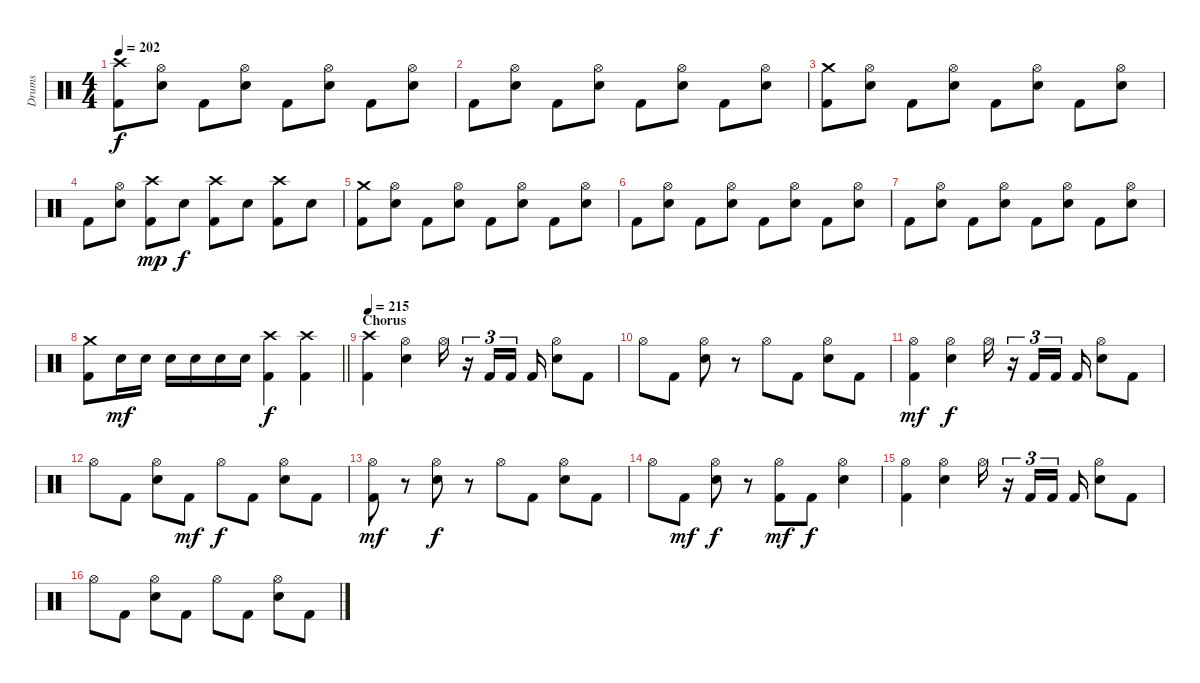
\track ("Drums" "Drums") {instrument percussion}
\staff {score}
\articulation defaults
\ts (4 4)
\tempo 202
\clef neutral
\ks c
("Crash high (hit)" "Kick (hit) 2").8{dy f} ("Hi-Hat (open)" "Snare (hit) 2").8 "Kick (hit) 2".8 ("Hi-Hat (open)" "Snare (hit) 2").8 "Kick (hit) 2".8 ("Hi-Hat (open)" "Snare (hit) 2").8 "Kick (hit) 2".8 ("Hi-Hat (open)" "Snare (hit) 2").8 |
"Kick (hit) 2".8 ("Hi-Hat (open)" "Snare (hit) 2").8 "Kick (hit) 2".8 ("Hi-Hat (open)" "Snare (hit) 2").8 "Kick (hit) 2".8 ("Hi-Hat (open)" "Snare (hit) 2").8 "Kick (hit) 2".8 ("Hi-Hat (open)" "Snare (hit) 2").8 |
("Crash medium (hit)" "Kick (hit) 2").8 ("Hi-Hat (open)" "Snare (hit) 2").8 "Kick (hit) 2".8 ("Hi-Hat (open)" "Snare (hit) 2").8 "Kick (hit) 2".8 ("Hi-Hat (open)" "Snare (hit) 2").8 "Kick (hit) 2".8 ("Hi-Hat (open)" "Snare (hit) 2").8 |
"Kick (hit) 2".8 ("Hi-Hat (open)" "Snare (hit) 2").8 ("Crash high (hit)" "Kick (hit) 2").8{dy mp} "Snare (hit) 2".8{dy f} ("Crash high (hit)" "Kick (hit) 2").8 "Snare (hit) 2".8 ("Crash high (hit)" "Kick (hit) 2").8 "Snare (hit) 2".8 |
("Crash medium (hit)" "Kick (hit) 2").8 ("Hi-Hat (open)" "Snare (hit) 2").8 "Kick (hit) 2".8 ("Hi-Hat (open)" "Snare (hit) 2").8 "Kick (hit) 2".8 ("Hi-Hat (open)" "Snare (hit) 2").8 "Kick (hit) 2".8 ("Hi-Hat (open)" "Snare (hit) 2").8 |
"Kick (hit) 2".8 ("Hi-Hat (open)" "Snare (hit) 2").8 "Kick (hit) 2".8 ("Hi-Hat (open)" "Snare (hit) 2").8 "Kick (hit) 2".8 ("Hi-Hat (open)" "Snare (hit) 2").8 "Kick (hit) 2".8 ("Hi-Hat (open)" "Snare (hit) 2").8 |
"Kick (hit) 2".8 ("Hi-Hat (open)" "Snare (hit) 2").8 "Kick (hit) 2".8 ("Hi-Hat (open)" "Snare (hit) 2").8 "Kick (hit) 2".8 ("Hi-Hat (open)" "Snare (hit) 2").8 "Kick (hit) 2".8 ("Hi-Hat (open)" "Snare (hit) 2").8 |
\barLineRight lightlight
("Crash medium (hit)" "Kick (hit) 2").8 "Snare (hit) 2".16{dy mf} "Snare (hit) 2".16 "Snare (hit) 2".16 "Snare (hit) 2".16 "Snare (hit) 2".16 "Snare (hit) 2".16 ("Crash high (hit)" "Kick (hit) 2").4{dy f} ("Crash high (hit)" "Kick (hit) 2").4 |
\section ("" "Chorus")
\tempo 215
("Crash high (hit)" "Kick (hit) 2").4 ("Hi-Hat (open)" "Snare (hit) 2").4 "Hi-Hat (open)".16 r.16{tu (3 2)} "Kick (hit) 2".16{tu (3 2)} "Kick (hit) 2".16{tu (3 2) beam splitsecondary} "Kick (hit) 2".16 ("Hi-Hat (open)" "Snare (hit) 2").8 "Kick (hit) 2".8 |
"Hi-Hat (open)".8 "Kick (hit) 2".8 ("Hi-Hat (open)" "Snare (hit) 2").8 r.8 "Hi-Hat (open)".8 "Kick (hit) 2".8 ("Hi-Hat (open)" "Snare (hit) 2").8 "Kick (hit) 2".8 |
("Hi-Hat (open)" "Kick (hit) 2").4{dy mf} ("Hi-Hat (open)" "Snare (hit) 2").4{dy f} "Hi-Hat (open)".16 r.16{tu (3 2)} "Kick (hit) 2".16{tu (3 2)} "Kick (hit) 2".16{tu (3 2) beam splitsecondary} "Kick (hit) 2".16 ("Hi-Hat (open)" "Snare (hit) 2").8 "Kick (hit) 2".8 |
"Hi-Hat (open)".8 "Kick (hit) 2".8 ("Hi-Hat (open)" "Snare (hit) 2").8 "Kick (hit) 2".8{dy mf} "Hi-Hat (open)".8{dy f} "Kick (hit) 2".8 ("Hi-Hat (open)" "Snare (hit) 2").8 "Kick (hit) 2".8 |
("Hi-Hat (open)" "Kick (hit) 2").8{dy mf} r.8 ("Hi-Hat (open)" "Snare (hit) 2").8{dy f} r.8 "Hi-Hat (open)".8 "Kick (hit) 2".8 ("Hi-Hat (open)" "Snare (hit) 2").8 "Kick (hit) 2".8 |
"Hi-Hat (open)".8 "Kick (hit) 2".8{dy mf} ("Hi-Hat (open)" "Snare (hit) 2").8{dy f} r.8 ("Hi-Hat (open)" "Kick (hit) 2").8{dy mf} "Kick (hit) 2".8{dy f} ("Hi-Hat (open)" "Snare (hit) 2").4 |
("Hi-Hat (open)" "Kick (hit) 2").4 ("Hi-Hat (open)" "Snare (hit) 2").4 "Hi-Hat (open)".16 r.16{tu (3 2)} "Kick (hit) 2".16{tu (3 2)} "Kick (hit) 2".16{tu (3 2) beam splitsecondary} "Kick (hit) 2".16 ("Hi-Hat (open)" "Snare (hit) 2").8 "Kick (hit) 2".8 |
"Hi-Hat (open)".8 "Kick (hit) 2".8 ("Hi-Hat (open)" "Snare (hit) 2").8 "Kick (hit) 2".8 "Hi-Hat (open)".8 "Kick (hit) 2".8 ("Hi-Hat (open)" "Snare (hit) 2").8 "Kick (hit) 2".8
